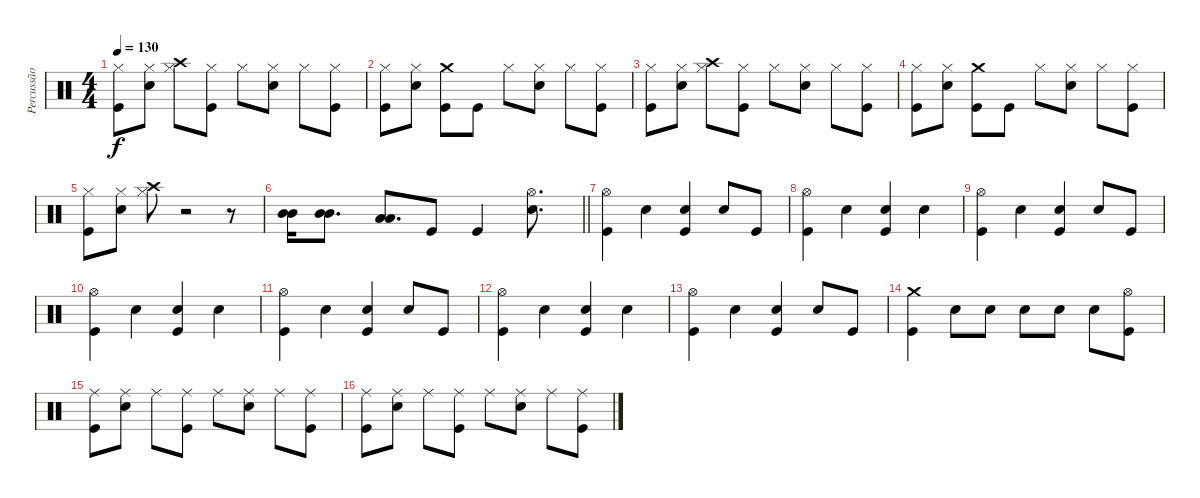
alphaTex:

\track ("Percussão" "Percussão") {instrument percussion}
\staff {score}
\articulation defaults
\ts (4 4)
\tempo 130
\clef neutral
\ks c
("Hi-Hat (closed)" "Kick (hit)").8{dy f} ("Hi-Hat (closed)" "Snare (hit) 2").8 ("Hi-Hat (closed)" "Crash high (hit)").8 ("Hi-Hat (closed)" "Kick (hit)").8 "Hi-Hat (closed)".8 ("Hi-Hat (closed)" "Snare (hit) 2").8 "Hi-Hat (closed)".8 ("Hi-Hat (closed)" "Kick (hit)").8 |
("Hi-Hat (closed)" "Kick (hit)").8 ("Hi-Hat (closed)" "Snare (hit) 2").8 ("Kick (hit)" "Crash medium (hit)").8 "Kick (hit)".8 "Hi-Hat (closed)".8 ("Hi-Hat (closed)" "Snare (hit) 2").8 "Hi-Hat (closed)".8 ("Hi-Hat (closed)" "Kick (hit)").8 |
("Hi-Hat (closed)" "Kick (hit)").8 ("Hi-Hat (closed)" "Snare (hit) 2").8 ("Hi-Hat (closed)" "Crash high (hit)").8 ("Hi-Hat (closed)" "Kick (hit)").8 "Hi-Hat (closed)".8 ("Hi-Hat (closed)" "Snare (hit) 2").8 "Hi-Hat (closed)".8 ("Hi-Hat (closed)" "Kick (hit)").8 |
("Hi-Hat (closed)" "Kick (hit)").8 ("Hi-Hat (closed)" "Snare (hit) 2").8 ("Kick (hit)" "Crash medium (hit)").8 "Kick (hit)".8 "Hi-Hat (closed)".8 ("Hi-Hat (closed)" "Snare (hit) 2").8 "Hi-Hat (closed)".8 ("Hi-Hat (closed)" "Kick (hit)").8 |
("Hi-Hat (closed)" "Kick (hit)").8 ("Hi-Hat (closed)" "Snare (hit) 2").8 ("Hi-Hat (closed)" "Crash high (hit)").8 r.2 r.8 |
\barLineRight lightlight
("Mid Tom (hit)" "Mid Tom (hit)").16 ("Mid Tom (hit)" "Mid Tom (hit)").8{d} ("Low Tom (hit)" "Low Tom (hit)").8{d} "Kick (hit)".8 "Kick (hit)".4 ("Snare (hit) 2" "Hi-Hat (open)").8{d} |
("Kick (hit)" "Hi-Hat (open)").4 "Snare (hit) 2".4 ("Snare (hit) 2" "Kick (hit)").4 "Snare (hit) 2".8 "Kick (hit)".8 |
("Kick (hit)" "Hi-Hat (open)").4 "Snare (hit) 2".4 ("Snare (hit) 2" "Kick (hit)").4 "Snare (hit) 2".4 |
("Kick (hit)" "Hi-Hat (open)").4 "Snare (hit) 2".4 ("Snare (hit) 2" "Kick (hit)").4 "Snare (hit) 2".8 "Kick (hit)".8 |
("Kick (hit)" "Hi-Hat (open)").4 "Snare (hit) 2".4 ("Snare (hit) 2" "Kick (hit)").4 "Snare (hit) 2".4 |
("Kick (hit)" "Hi-Hat (open)").4 "Snare (hit) 2".4 ("Snare (hit) 2" "Kick (hit)").4 "Snare (hit) 2".8 "Kick (hit)".8 |
("Kick (hit)" "Hi-Hat (open)").4 "Snare (hit) 2".4 ("Snare (hit) 2" "Kick (hit)").4 "Snare (hit) 2".4 |
("Kick (hit)" "Hi-Hat (open)").4 "Snare (hit) 2".4 ("Snare (hit) 2" "Kick (hit)").4 "Snare (hit) 2".8 "Kick (hit)".8 |
("Crash medium (hit)" "Kick (hit)").4 "Snare (hit) 2".8{volume 6} "Snare (hit) 2".8{volume 8} "Snare (hit) 2".8{volume 10} "Snare (hit) 2".8{volume 12} "Snare (hit) 2".8{volume 13} ("Hi-Hat (open)" "Kick (hit)").8 |
("Ride (middle)" "Kick (hit)").8 ("Ride (middle)" "Snare (hit) 2").8 "Ride (middle)".8 ("Ride (middle)" "Kick (hit)").8 "Ride (middle)".8 ("Ride (middle)" "Snare (hit) 2").8 "Ride (middle)".8 ("Ride (middle)" "Kick (hit)").8 |
("Ride (middle)" "Kick (hit)").8 ("Ride (middle)" "Snare (hit) 2").8 "Ride (middle)".8 ("Ride (middle)" "Kick (hit)").8 "Ride (middle)".8 ("Ride (middle)" "Snare (hit) 2").8 "Ride (middle)".8 ("Ride (middle)" "Kick (hit)").8
